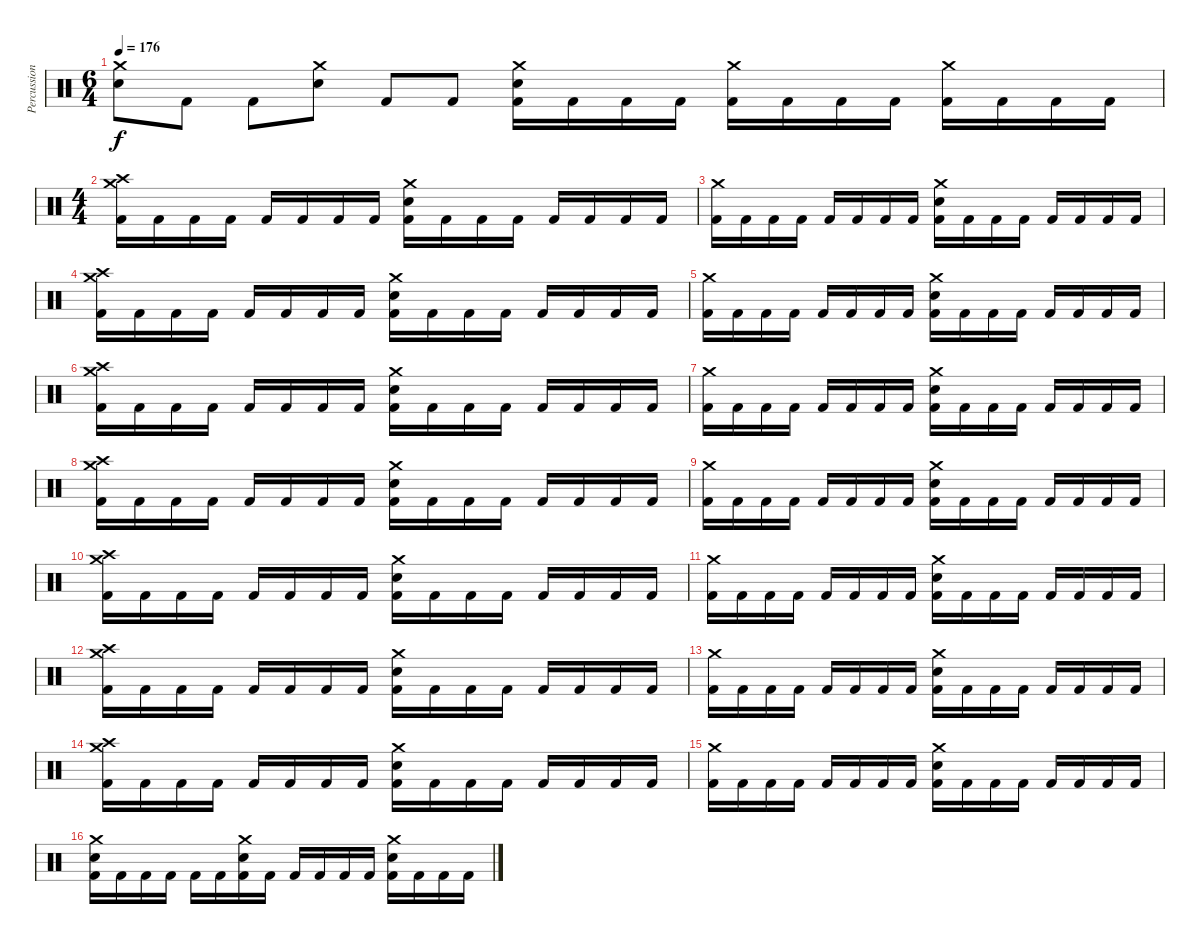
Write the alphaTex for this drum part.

\track ("Percussion" "Percussion") {instrument percussion}
\staff {score}
\articulation defaults
\ts (6 4)
\tempo 176
\clef neutral
\ks c
("Crash medium (hit)" "Snare (hit) 2").8{dy f} "Kick (hit) 2".8 "Kick (hit) 2".8 ("Crash medium (hit)" "Snare (hit) 2").8 "Kick (hit) 2".8 "Kick (hit) 2".8 ("Crash medium (hit)" "Snare (hit) 2" "Kick (hit) 2").16 "Kick (hit) 2".16 "Kick (hit) 2".16 "Kick (hit) 2".16 ("Crash medium (hit)" "Kick (hit) 2").16 "Kick (hit) 2".16 "Kick (hit) 2".16 "Kick (hit) 2".16 ("Crash medium (hit)" "Kick (hit) 2").16 "Kick (hit) 2".16 "Kick (hit) 2".16 "Kick (hit) 2".16 |
\ts (4 4)
("Crash high (hit)" "Crash medium (hit)" "Kick (hit) 2").16 "Kick (hit) 2".16 "Kick (hit) 2".16 "Kick (hit) 2".16 "Kick (hit) 2".16 "Kick (hit) 2".16 "Kick (hit) 2".16 "Kick (hit) 2".16 ("Crash medium (hit)" "Snare (hit) 2" "Kick (hit) 2").16 "Kick (hit) 2".16 "Kick (hit) 2".16 "Kick (hit) 2".16 "Kick (hit) 2".16 "Kick (hit) 2".16 "Kick (hit) 2".16 "Kick (hit) 2".16 |
("Crash medium (hit)" "Kick (hit) 2").16 "Kick (hit) 2".16 "Kick (hit) 2".16 "Kick (hit) 2".16 "Kick (hit) 2".16 "Kick (hit) 2".16 "Kick (hit) 2".16 "Kick (hit) 2".16 ("Crash medium (hit)" "Snare (hit) 2" "Kick (hit) 2").16 "Kick (hit) 2".16 "Kick (hit) 2".16 "Kick (hit) 2".16 "Kick (hit) 2".16 "Kick (hit) 2".16 "Kick (hit) 2".16 "Kick (hit) 2".16 |
("Crash high (hit)" "Crash medium (hit)" "Kick (hit) 2").16 "Kick (hit) 2".16 "Kick (hit) 2".16 "Kick (hit) 2".16 "Kick (hit) 2".16 "Kick (hit) 2".16 "Kick (hit) 2".16 "Kick (hit) 2".16 ("Crash medium (hit)" "Snare (hit) 2" "Kick (hit) 2").16 "Kick (hit) 2".16 "Kick (hit) 2".16 "Kick (hit) 2".16 "Kick (hit) 2".16 "Kick (hit) 2".16 "Kick (hit) 2".16 "Kick (hit) 2".16 |
("Crash medium (hit)" "Kick (hit) 2").16 "Kick (hit) 2".16 "Kick (hit) 2".16 "Kick (hit) 2".16 "Kick (hit) 2".16 "Kick (hit) 2".16 "Kick (hit) 2".16 "Kick (hit) 2".16 ("Crash medium (hit)" "Snare (hit) 2" "Kick (hit) 2").16 "Kick (hit) 2".16 "Kick (hit) 2".16 "Kick (hit) 2".16 "Kick (hit) 2".16 "Kick (hit) 2".16 "Kick (hit) 2".16 "Kick (hit) 2".16 |
("Crash high (hit)" "Crash medium (hit)" "Kick (hit) 2").16 "Kick (hit) 2".16 "Kick (hit) 2".16 "Kick (hit) 2".16 "Kick (hit) 2".16 "Kick (hit) 2".16 "Kick (hit) 2".16 "Kick (hit) 2".16 ("Crash medium (hit)" "Snare (hit) 2" "Kick (hit) 2").16 "Kick (hit) 2".16 "Kick (hit) 2".16 "Kick (hit) 2".16 "Kick (hit) 2".16 "Kick (hit) 2".16 "Kick (hit) 2".16 "Kick (hit) 2".16 |
("Crash medium (hit)" "Kick (hit) 2").16 "Kick (hit) 2".16 "Kick (hit) 2".16 "Kick (hit) 2".16 "Kick (hit) 2".16 "Kick (hit) 2".16 "Kick (hit) 2".16 "Kick (hit) 2".16 ("Crash medium (hit)" "Snare (hit) 2" "Kick (hit) 2").16 "Kick (hit) 2".16 "Kick (hit) 2".16 "Kick (hit) 2".16 "Kick (hit) 2".16 "Kick (hit) 2".16 "Kick (hit) 2".16 "Kick (hit) 2".16 |
("Crash high (hit)" "Crash medium (hit)" "Kick (hit) 2").16 "Kick (hit) 2".16 "Kick (hit) 2".16 "Kick (hit) 2".16 "Kick (hit) 2".16 "Kick (hit) 2".16 "Kick (hit) 2".16 "Kick (hit) 2".16 ("Crash medium (hit)" "Snare (hit) 2" "Kick (hit) 2").16 "Kick (hit) 2".16 "Kick (hit) 2".16 "Kick (hit) 2".16 "Kick (hit) 2".16 "Kick (hit) 2".16 "Kick (hit) 2".16 "Kick (hit) 2".16 |
("Crash medium (hit)" "Kick (hit) 2").16 "Kick (hit) 2".16 "Kick (hit) 2".16 "Kick (hit) 2".16 "Kick (hit) 2".16 "Kick (hit) 2".16 "Kick (hit) 2".16 "Kick (hit) 2".16 ("Crash medium (hit)" "Snare (hit) 2" "Kick (hit) 2").16 "Kick (hit) 2".16 "Kick (hit) 2".16 "Kick (hit) 2".16 "Kick (hit) 2".16 "Kick (hit) 2".16 "Kick (hit) 2".16 "Kick (hit) 2".16 |
("Crash high (hit)" "Crash medium (hit)" "Kick (hit) 2").16 "Kick (hit) 2".16 "Kick (hit) 2".16 "Kick (hit) 2".16 "Kick (hit) 2".16 "Kick (hit) 2".16 "Kick (hit) 2".16 "Kick (hit) 2".16 ("Crash medium (hit)" "Snare (hit) 2" "Kick (hit) 2").16 "Kick (hit) 2".16 "Kick (hit) 2".16 "Kick (hit) 2".16 "Kick (hit) 2".16 "Kick (hit) 2".16 "Kick (hit) 2".16 "Kick (hit) 2".16 |
("Crash medium (hit)" "Kick (hit) 2").16 "Kick (hit) 2".16 "Kick (hit) 2".16 "Kick (hit) 2".16 "Kick (hit) 2".16 "Kick (hit) 2".16 "Kick (hit) 2".16 "Kick (hit) 2".16 ("Crash medium (hit)" "Snare (hit) 2" "Kick (hit) 2").16 "Kick (hit) 2".16 "Kick (hit) 2".16 "Kick (hit) 2".16 "Kick (hit) 2".16 "Kick (hit) 2".16 "Kick (hit) 2".16 "Kick (hit) 2".16 |
("Crash high (hit)" "Crash medium (hit)" "Kick (hit) 2").16 "Kick (hit) 2".16 "Kick (hit) 2".16 "Kick (hit) 2".16 "Kick (hit) 2".16 "Kick (hit) 2".16 "Kick (hit) 2".16 "Kick (hit) 2".16 ("Crash medium (hit)" "Snare (hit) 2" "Kick (hit) 2").16 "Kick (hit) 2".16 "Kick (hit) 2".16 "Kick (hit) 2".16 "Kick (hit) 2".16 "Kick (hit) 2".16 "Kick (hit) 2".16 "Kick (hit) 2".16 |
("Crash medium (hit)" "Kick (hit) 2").16 "Kick (hit) 2".16 "Kick (hit) 2".16 "Kick (hit) 2".16 "Kick (hit) 2".16 "Kick (hit) 2".16 "Kick (hit) 2".16 "Kick (hit) 2".16 ("Crash medium (hit)" "Snare (hit) 2" "Kick (hit) 2").16 "Kick (hit) 2".16 "Kick (hit) 2".16 "Kick (hit) 2".16 "Kick (hit) 2".16 "Kick (hit) 2".16 "Kick (hit) 2".16 "Kick (hit) 2".16 |
("Crash high (hit)" "Crash medium (hit)" "Kick (hit) 2").16 "Kick (hit) 2".16 "Kick (hit) 2".16 "Kick (hit) 2".16 "Kick (hit) 2".16 "Kick (hit) 2".16 "Kick (hit) 2".16 "Kick (hit) 2".16 ("Crash medium (hit)" "Snare (hit) 2" "Kick (hit) 2").16 "Kick (hit) 2".16 "Kick (hit) 2".16 "Kick (hit) 2".16 "Kick (hit) 2".16 "Kick (hit) 2".16 "Kick (hit) 2".16 "Kick (hit) 2".16 |
("Crash medium (hit)" "Kick (hit) 2").16 "Kick (hit) 2".16 "Kick (hit) 2".16 "Kick (hit) 2".16 "Kick (hit) 2".16 "Kick (hit) 2".16 "Kick (hit) 2".16 "Kick (hit) 2".16 ("Crash medium (hit)" "Snare (hit) 2" "Kick (hit) 2").16 "Kick (hit) 2".16 "Kick (hit) 2".16 "Kick (hit) 2".16 "Kick (hit) 2".16 "Kick (hit) 2".16 "Kick (hit) 2".16 "Kick (hit) 2".16 |
("Crash medium (hit)" "Snare (hit) 2" "Kick (hit) 2").16 "Kick (hit) 2".16 "Kick (hit) 2".16 "Kick (hit) 2".16 "Kick (hit) 2".16 "Kick (hit) 2".16 ("Crash medium (hit)" "Snare (hit) 2" "Kick (hit) 2").16 "Kick (hit) 2".16 "Kick (hit) 2".16 "Kick (hit) 2".16 "Kick (hit) 2".16 "Kick (hit) 2".16 ("Crash medium (hit)" "Snare (hit) 2" "Kick (hit) 2").16 "Kick (hit) 2".16 "Kick (hit) 2".16 "Kick (hit) 2".16
